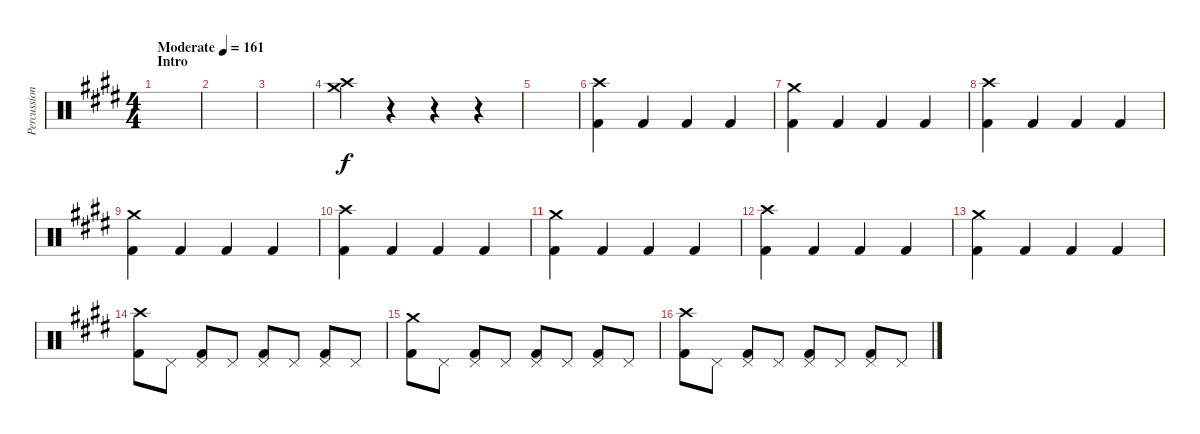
\track ("Percussion" "Percussion") {instrument percussion}
\staff {score}
\articulation defaults
\ts (4 4)
\section ("" "Intro")
\tempo (161 "Moderate")
\clef neutral
\ks e
|
|
|
("Crash high (hit)" "Crash medium (hit)").4 r.4 r.4 r.4 |
|
("Crash high (hit)" "Kick (hit) 2").4 "Kick (hit) 2".4 "Kick (hit) 2".4 "Kick (hit) 2".4 |
("Crash medium (hit)" "Kick (hit) 2").4 "Kick (hit) 2".4 "Kick (hit) 2".4 "Kick (hit) 2".4 |
("Crash high (hit)" "Kick (hit) 2").4 "Kick (hit) 2".4 "Kick (hit) 2".4 "Kick (hit) 2".4 |
("Crash medium (hit)" "Kick (hit) 2").4 "Kick (hit) 2".4 "Kick (hit) 2".4 "Kick (hit) 2".4 |
("Crash high (hit)" "Kick (hit) 2").4 "Kick (hit) 2".4 "Kick (hit) 2".4 "Kick (hit) 2".4 |
("Crash medium (hit)" "Kick (hit) 2").4 "Kick (hit) 2".4 "Kick (hit) 2".4 "Kick (hit) 2".4 |
("Crash high (hit)" "Kick (hit) 2").4 "Kick (hit) 2".4 "Kick (hit) 2".4 "Kick (hit) 2".4 |
("Crash medium (hit)" "Kick (hit) 2").4 "Kick (hit) 2".4 "Kick (hit) 2".4 "Kick (hit) 2".4 |
("Crash high (hit)" "Kick (hit) 2").8 "Pedal Hi-Hat (hit)".8 ("Pedal Hi-Hat (hit)" "Kick (hit) 2").8 "Pedal Hi-Hat (hit)".8 ("Pedal Hi-Hat (hit)" "Kick (hit) 2").8 "Pedal Hi-Hat (hit)".8 ("Pedal Hi-Hat (hit)" "Kick (hit) 2").8 "Pedal Hi-Hat (hit)".8 |
("Crash medium (hit)" "Kick (hit) 2").8 "Pedal Hi-Hat (hit)".8 ("Pedal Hi-Hat (hit)" "Kick (hit) 2").8 "Pedal Hi-Hat (hit)".8 ("Pedal Hi-Hat (hit)" "Kick (hit) 2").8 "Pedal Hi-Hat (hit)".8 ("Pedal Hi-Hat (hit)" "Kick (hit) 2").8 "Pedal Hi-Hat (hit)".8 |
("Crash high (hit)" "Kick (hit) 2").8 "Pedal Hi-Hat (hit)".8 ("Pedal Hi-Hat (hit)" "Kick (hit) 2").8 "Pedal Hi-Hat (hit)".8 ("Pedal Hi-Hat (hit)" "Kick (hit) 2").8 "Pedal Hi-Hat (hit)".8 ("Pedal Hi-Hat (hit)" "Kick (hit) 2").8 "Pedal Hi-Hat (hit)".8
